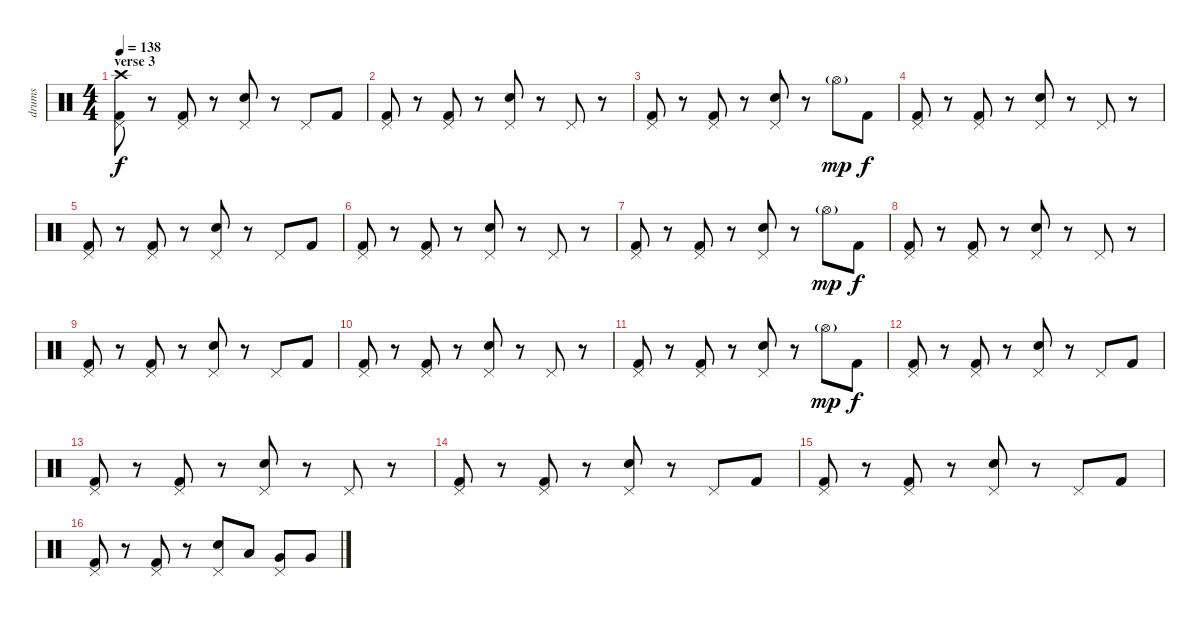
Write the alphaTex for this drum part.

\track ("drums" "drums") {instrument percussion}
\staff {score}
\articulation defaults
\ts (4 4)
\section ("" "verse 3")
\tempo 138
\clef neutral
\ks c
("Kick (hit) 2" "Pedal Hi-Hat (hit)" "Crash high (hit)").8{dy f} r.8 ("Kick (hit) 2" "Pedal Hi-Hat (hit)").8 r.8 ("Electric Snare (hit)" "Pedal Hi-Hat (hit)").8 r.8 "Pedal Hi-Hat (hit)".8 "Kick (hit) 2".8 |
("Kick (hit) 2" "Pedal Hi-Hat (hit)").8 r.8 ("Kick (hit) 2" "Pedal Hi-Hat (hit)").8 r.8 ("Electric Snare (hit)" "Pedal Hi-Hat (hit)").8 r.8 "Pedal Hi-Hat (hit)".8 r.8 |
("Kick (hit) 2" "Pedal Hi-Hat (hit)").8 r.8 ("Kick (hit) 2" "Pedal Hi-Hat (hit)").8 r.8 ("Electric Snare (hit)" "Pedal Hi-Hat (hit)").8 r.8 "Hi-Hat (open)"{g}.8{dy mp} "Kick (hit) 2".8{dy f} |
("Kick (hit) 2" "Pedal Hi-Hat (hit)").8 r.8 ("Kick (hit) 2" "Pedal Hi-Hat (hit)").8 r.8 ("Electric Snare (hit)" "Pedal Hi-Hat (hit)").8 r.8 "Pedal Hi-Hat (hit)".8 r.8 |
("Kick (hit) 2" "Pedal Hi-Hat (hit)").8 r.8 ("Kick (hit) 2" "Pedal Hi-Hat (hit)").8 r.8 ("Electric Snare (hit)" "Pedal Hi-Hat (hit)").8 r.8 "Pedal Hi-Hat (hit)".8 "Kick (hit) 2".8 |
("Kick (hit) 2" "Pedal Hi-Hat (hit)").8 r.8 ("Kick (hit) 2" "Pedal Hi-Hat (hit)").8 r.8 ("Electric Snare (hit)" "Pedal Hi-Hat (hit)").8 r.8 "Pedal Hi-Hat (hit)".8 r.8 |
("Kick (hit) 2" "Pedal Hi-Hat (hit)").8 r.8 ("Kick (hit) 2" "Pedal Hi-Hat (hit)").8 r.8 ("Electric Snare (hit)" "Pedal Hi-Hat (hit)").8 r.8 "Hi-Hat (open)"{g}.8{dy mp} "Kick (hit) 2".8{dy f} |
("Kick (hit) 2" "Pedal Hi-Hat (hit)").8 r.8 ("Kick (hit) 2" "Pedal Hi-Hat (hit)").8 r.8 ("Electric Snare (hit)" "Pedal Hi-Hat (hit)").8 r.8 "Pedal Hi-Hat (hit)".8 r.8 |
("Kick (hit) 2" "Pedal Hi-Hat (hit)").8 r.8 ("Kick (hit) 2" "Pedal Hi-Hat (hit)").8 r.8 ("Electric Snare (hit)" "Pedal Hi-Hat (hit)").8 r.8 "Pedal Hi-Hat (hit)".8 "Kick (hit) 2".8 |
("Kick (hit) 2" "Pedal Hi-Hat (hit)").8 r.8 ("Kick (hit) 2" "Pedal Hi-Hat (hit)").8 r.8 ("Electric Snare (hit)" "Pedal Hi-Hat (hit)").8 r.8 "Pedal Hi-Hat (hit)".8 r.8 |
("Kick (hit) 2" "Pedal Hi-Hat (hit)").8 r.8 ("Kick (hit) 2" "Pedal Hi-Hat (hit)").8 r.8 ("Electric Snare (hit)" "Pedal Hi-Hat (hit)").8 r.8 "Hi-Hat (open)"{g}.8{dy mp} "Kick (hit) 2".8{dy f} |
("Kick (hit) 2" "Pedal Hi-Hat (hit)").8 r.8 ("Kick (hit) 2" "Pedal Hi-Hat (hit)").8 r.8 ("Electric Snare (hit)" "Pedal Hi-Hat (hit)").8 r.8 "Pedal Hi-Hat (hit)".8 "Kick (hit) 2".8 |
("Kick (hit) 2" "Pedal Hi-Hat (hit)").8 r.8 ("Kick (hit) 2" "Pedal Hi-Hat (hit)").8 r.8 ("Electric Snare (hit)" "Pedal Hi-Hat (hit)").8 r.8 "Pedal Hi-Hat (hit)".8 r.8 |
("Kick (hit) 2" "Pedal Hi-Hat (hit)").8 r.8 ("Kick (hit) 2" "Pedal Hi-Hat (hit)").8 r.8 ("Electric Snare (hit)" "Pedal Hi-Hat (hit)").8 r.8 "Pedal Hi-Hat (hit)".8 "Kick (hit) 2".8 |
("Kick (hit) 2" "Pedal Hi-Hat (hit)").8 r.8 ("Kick (hit) 2" "Pedal Hi-Hat (hit)").8 r.8 ("Electric Snare (hit)" "Pedal Hi-Hat (hit)").8 r.8 "Pedal Hi-Hat (hit)".8 "Kick (hit) 2".8 |
("Kick (hit) 2" "Pedal Hi-Hat (hit)").8 r.8 ("Kick (hit) 2" "Pedal Hi-Hat (hit)").8 r.8 ("Electric Snare (hit)" "Pedal Hi-Hat (hit)").8 "Low Tom (hit)".8 ("Very Low Tom (hit)" "Pedal Hi-Hat (hit)").8 "Very Low Tom (hit)".8
